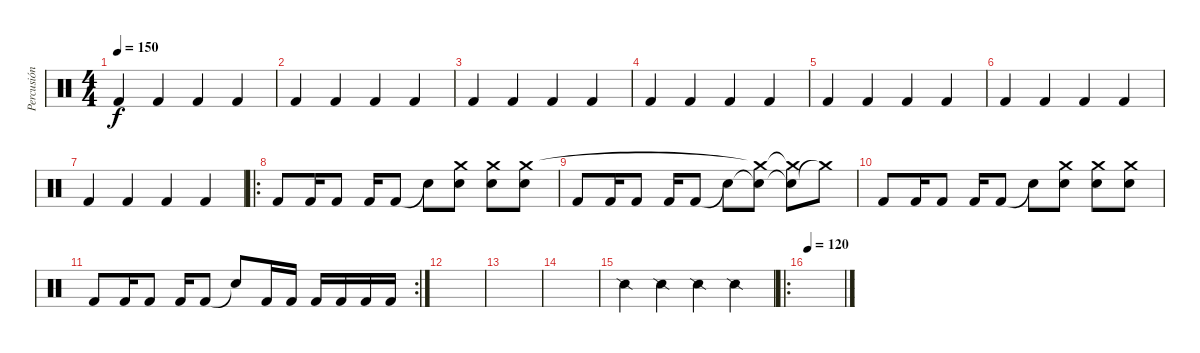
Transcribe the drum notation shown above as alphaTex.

\track ("Percusión" "Percusión") {instrument percussion}
\staff {score}
\articulation defaults
\ts (4 4)
\tempo 150
\clef neutral
\ks c "Kick (hit) 2".4{dy f} "Kick (hit) 2".4 "Kick (hit) 2".4 "Kick (hit) 2".4
|
"Kick (hit) 2".4 "Kick (hit) 2".4 "Kick (hit) 2".4 "Kick (hit) 2".4 |
"Kick (hit) 2".4 "Kick (hit) 2".4 "Kick (hit) 2".4 "Kick (hit) 2".4 |
"Kick (hit) 2".4 "Kick (hit) 2".4 "Kick (hit) 2".4 "Kick (hit) 2".4 |
"Kick (hit) 2".4 "Kick (hit) 2".4 "Kick (hit) 2".4 "Kick (hit) 2".4 |
"Kick (hit) 2".4 "Kick (hit) 2".4 "Kick (hit) 2".4 "Kick (hit) 2".4 |
"Kick (hit) 2".4 "Kick (hit) 2".4 "Kick (hit) 2".4 "Kick (hit) 2".4 |
\ro "Kick (hit) 2".8 "Kick (hit) 2".16 "Kick (hit) 2".8 "Kick (hit) 2".16 "Kick (hit) 2".8 "Snare (hit)"{t}.8
("Snare (hit) 2" "Crash medium (hit)").8 ("Snare (hit) 2" "Crash medium (hit)").8 ("Snare (hit) 2" "Crash medium (hit)").8 |
"Kick (hit) 2".8 "Kick (hit) 2".16 "Kick (hit) 2".8 "Kick (hit) 2".16 "Kick (hit) 2".8 "Snare (hit)"{t}.8 ("Snare (hit) 2"{t} "Crash medium (hit)"{t}).8 ("Snare (hit) 2"{t} "Crash medium (hit)"{t}).8 "Crash medium (hit)"{t}.8 |
"Kick (hit) 2".8 "Kick (hit) 2".16 "Kick (hit) 2".8 "Kick (hit) 2".16 "Kick (hit) 2".8 "Snare (hit)"{t}.8 ("Snare (hit) 2" "Crash medium (hit)").8 ("Snare (hit) 2" "Crash medium (hit)").8 ("Snare (hit) 2" "Crash medium (hit)").8 |
\rc 2 "Kick (hit) 2".8 "Kick (hit) 2".16 "Kick (hit) 2".8 "Kick (hit) 2".16 "Kick (hit) 2".8 "Snare (hit)"{t}.8 "Kick (hit) 2".16 "Kick (hit) 2".16 "Kick (hit) 2".16 "Kick (hit) 2".16 "Kick (hit) 2".16 "Kick (hit) 2".16
|
|
|
|
"Snare (side stick) 2".4 "Snare (side stick) 2".4 "Snare (side stick) 2".4 "Snare (side stick) 2".4 |
\ro
\tempo 120
